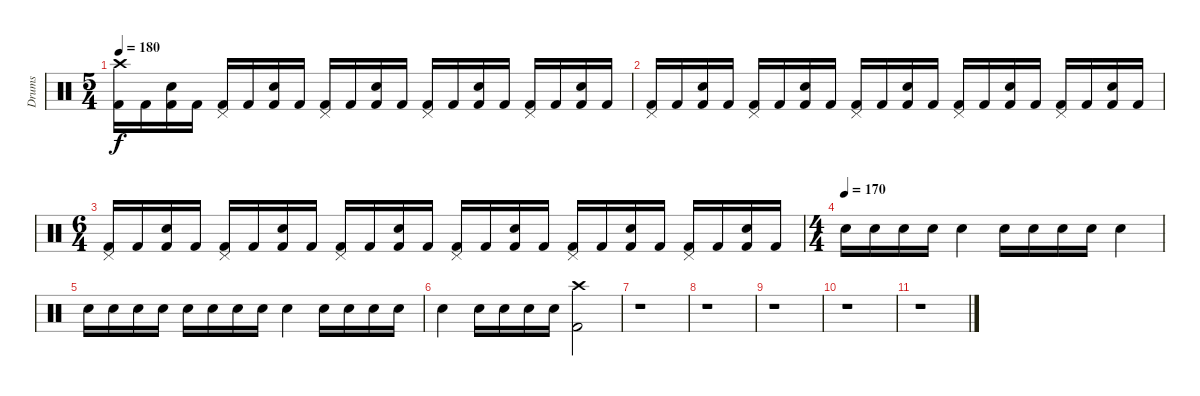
\track ("Drums" "Drums") {instrument percussion}
\staff {score}
\articulation defaults
\ts (5 4)
\tempo 180
\clef neutral
\ks c
("Crash high (hit)" "Kick (hit) 2").16{dy f} "Kick (hit) 2".16 ("Electric Snare (hit)" "Kick (hit) 2").16 "Kick (hit) 2".16 ("Pedal Hi-Hat (hit)" "Kick (hit) 2").16 "Kick (hit) 2".16 ("Electric Snare (hit)" "Kick (hit) 2").16 "Kick (hit) 2".16 ("Pedal Hi-Hat (hit)" "Kick (hit) 2").16 "Kick (hit) 2".16 ("Electric Snare (hit)" "Kick (hit) 2").16 "Kick (hit) 2".16 ("Pedal Hi-Hat (hit)" "Kick (hit) 2").16 "Kick (hit) 2".16 ("Electric Snare (hit)" "Kick (hit) 2").16 "Kick (hit) 2".16 ("Pedal Hi-Hat (hit)" "Kick (hit) 2").16 "Kick (hit) 2".16 ("Electric Snare (hit)" "Kick (hit) 2").16 "Kick (hit) 2".16 |
("Pedal Hi-Hat (hit)" "Kick (hit) 2").16 "Kick (hit) 2".16 ("Electric Snare (hit)" "Kick (hit) 2").16 "Kick (hit) 2".16 ("Pedal Hi-Hat (hit)" "Kick (hit) 2").16 "Kick (hit) 2".16 ("Electric Snare (hit)" "Kick (hit) 2").16 "Kick (hit) 2".16 ("Pedal Hi-Hat (hit)" "Kick (hit) 2").16 "Kick (hit) 2".16 ("Electric Snare (hit)" "Kick (hit) 2").16 "Kick (hit) 2".16 ("Pedal Hi-Hat (hit)" "Kick (hit) 2").16 "Kick (hit) 2".16 ("Electric Snare (hit)" "Kick (hit) 2").16 "Kick (hit) 2".16 ("Pedal Hi-Hat (hit)" "Kick (hit) 2").16 "Kick (hit) 2".16 ("Electric Snare (hit)" "Kick (hit) 2").16 "Kick (hit) 2".16 |
\ts (6 4)
("Pedal Hi-Hat (hit)" "Kick (hit) 2").16 "Kick (hit) 2".16 ("Electric Snare (hit)" "Kick (hit) 2").16 "Kick (hit) 2".16 ("Pedal Hi-Hat (hit)" "Kick (hit) 2").16 "Kick (hit) 2".16 ("Electric Snare (hit)" "Kick (hit) 2").16 "Kick (hit) 2".16 ("Pedal Hi-Hat (hit)" "Kick (hit) 2").16 "Kick (hit) 2".16 ("Electric Snare (hit)" "Kick (hit) 2").16 "Kick (hit) 2".16 ("Pedal Hi-Hat (hit)" "Kick (hit) 2").16 "Kick (hit) 2".16 ("Electric Snare (hit)" "Kick (hit) 2").16 "Kick (hit) 2".16 ("Pedal Hi-Hat (hit)" "Kick (hit) 2").16 "Kick (hit) 2".16 ("Electric Snare (hit)" "Kick (hit) 2").16 "Kick (hit) 2".16 ("Pedal Hi-Hat (hit)" "Kick (hit) 2").16 "Kick (hit) 2".16 ("Electric Snare (hit)" "Kick (hit) 2").16 "Kick (hit) 2".16 |
\ts (4 4)
\tempo (170)
"Electric Snare (hit)".16 "Electric Snare (hit)".16 "Electric Snare (hit)".16 "Electric Snare (hit)".16 "Electric Snare (hit)".4 "Electric Snare (hit)".16 "Electric Snare (hit)".16 "Electric Snare (hit)".16 "Electric Snare (hit)".16 "Electric Snare (hit)".4 |
"Electric Snare (hit)".16 "Electric Snare (hit)".16 "Electric Snare (hit)".16 "Electric Snare (hit)".16 "Electric Snare (hit)".16 "Electric Snare (hit)".16 "Electric Snare (hit)".16 "Electric Snare (hit)".16 "Electric Snare (hit)".4 "Electric Snare (hit)".16 "Electric Snare (hit)".16 "Electric Snare (hit)".16 "Electric Snare (hit)".16 |
"Electric Snare (hit)".4 "Electric Snare (hit)".16 "Electric Snare (hit)".16 "Electric Snare (hit)".16 "Electric Snare (hit)".16 ("Crash high (hit)" "Kick (hit) 2").2 |
r.1 |
r.1 |
r.1 |
r.1 |
r.1
